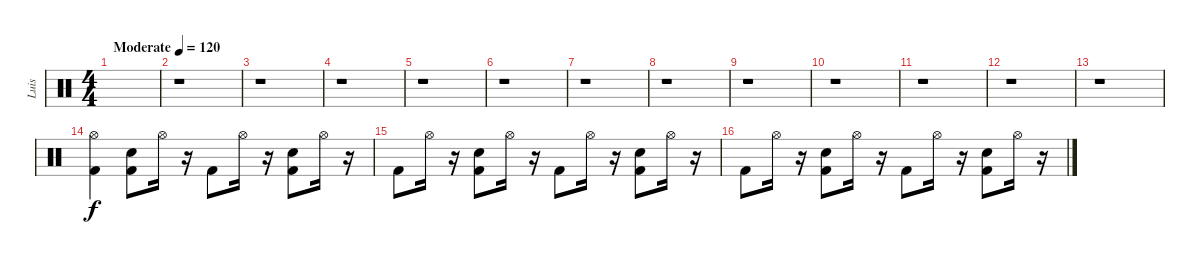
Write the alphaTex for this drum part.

\track ("Luis" "Luis") {instrument percussion}
\staff {score}
\articulation defaults
\ts (4 4)
\tempo (120 "Moderate")
\clef neutral
\ks c
|
r.1 |
r.1 |
r.1 |
r.1 |
r.1 |
r.1 |
r.1 |
r.1 |
r.1 |
r.1 |
r.1 |
r.1 |
("Hi-Hat (open)" "Kick (hit) 2").4 ("Electric Snare (hit)" "Kick (hit) 2").8 "Hi-Hat (open)".16 r.16 "Kick (hit) 2".8 "Hi-Hat (open)".16 r.16 ("Electric Snare (hit)" "Kick (hit) 2").8 "Hi-Hat (open)".16 r.16 |
"Kick (hit) 2".8 "Hi-Hat (open)".16 r.16 ("Electric Snare (hit)" "Kick (hit) 2").8 "Hi-Hat (open)".16 r.16 "Kick (hit) 2".8 "Hi-Hat (open)".16 r.16 ("Electric Snare (hit)" "Kick (hit) 2").8 "Hi-Hat (open)".16 r.16 |
"Kick (hit) 2".8 "Hi-Hat (open)".16 r.16 ("Electric Snare (hit)" "Kick (hit) 2").8 "Hi-Hat (open)".16 r.16 "Kick (hit) 2".8 "Hi-Hat (open)".16 r.16 ("Electric Snare (hit)" "Kick (hit) 2").8 "Hi-Hat (open)".16 r.16
